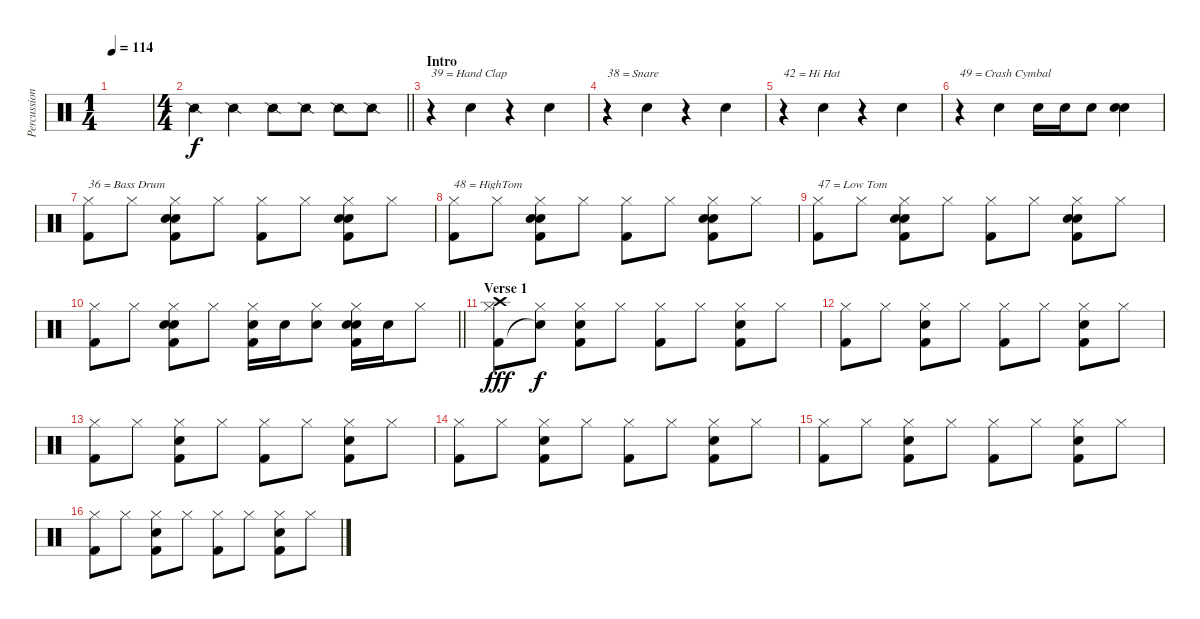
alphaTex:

\track ("Percussion" "Percussion") {instrument percussion}
\staff {score}
\articulation defaults
\ts (1 4)
\tempo 114
\clef neutral
\ks c
|
\ts (4 4)
\barLineRight lightlight "Snare (side stick) 2".4 "Snare (side stick) 2".4 "Snare (side stick) 2".8 "Snare (side stick) 2".8 "Snare (side stick) 2".8 "Snare (side stick) 2".8
|
\section ("" "Intro")
r.4{txt "39 = Hand Clap"} "Hand Clap (hit)".4 r.4 "Hand Clap (hit)".4 |
r.4{txt "38 = Snare"} "Hand Clap (hit)".4 r.4 "Hand Clap (hit)".4 |
r.4{txt "42 = Hi Hat"} "Hand Clap (hit)".4 r.4 "Hand Clap (hit)".4 |
r.4{txt "49 = Crash Cymbal"} "Hand Clap (hit)".4 "Snare (hit) 2".16 "Snare (hit) 2".16 "Snare (hit) 2".8 ("Hand Clap (hit)" "Snare (hit) 2").4 |
("Hi-Hat (closed)" "Kick (hit) 2").8{txt "36 = Bass Drum"} "Hi-Hat (closed)".8 ("Hand Clap (hit)" "Hi-Hat (closed)" "Snare (hit) 2" "Kick (hit) 2").8 "Hi-Hat (closed)".8 ("Hi-Hat (closed)" "Kick (hit) 2").8 "Hi-Hat (closed)".8 ("Hand Clap (hit)" "Hi-Hat (closed)" "Snare (hit) 2" "Kick (hit) 2").8 "Hi-Hat (closed)".8 |
("Hi-Hat (closed)" "Kick (hit) 2").8{txt "48 = HighTom"} "Hi-Hat (closed)".8 ("Hand Clap (hit)" "Hi-Hat (closed)" "Snare (hit) 2" "Kick (hit) 2").8 "Hi-Hat (closed)".8 ("Hi-Hat (closed)" "Kick (hit) 2").8 "Hi-Hat (closed)".8 ("Hand Clap (hit)" "Hi-Hat (closed)" "Snare (hit) 2" "Kick (hit) 2").8 "Hi-Hat (closed)".8 |
("Hi-Hat (closed)" "Kick (hit) 2").8{txt "47 = Low Tom"} "Hi-Hat (closed)".8 ("Hand Clap (hit)" "Hi-Hat (closed)" "Snare (hit) 2" "Kick (hit) 2").8 "Hi-Hat (closed)".8 ("Hi-Hat (closed)" "Kick (hit) 2").8 "Hi-Hat (closed)".8 ("Hand Clap (hit)" "Hi-Hat (closed)" "Snare (hit) 2" "Kick (hit) 2").8 "Hi-Hat (closed)".8 |
\barLineRight lightlight
("Hi-Hat (closed)" "Kick (hit) 2").8 "Hi-Hat (closed)".8 ("Hand Clap (hit)" "Hi-Hat (closed)" "Snare (hit) 2" "Kick (hit) 2").8 "Hi-Hat (closed)".8 ("Hi-Hat (closed)" "Snare (hit) 2" "Kick (hit) 2").16 "Snare (hit) 2".16 ("Hi-Hat (closed)" "Snare (hit) 2").8 ("Hand Clap (hit)" "Hi-Hat (closed)" "Snare (hit) 2" "Kick (hit) 2").16 "Snare (hit) 2".16 "Hi-Hat (closed)".8 |
\section ("" "Verse 1")
("Hi-Hat (closed)" "Kick (hit) 2" "Crash high (hit)").8{dy fff} ("Hi-Hat (closed)" "Snare (hit)"{t}).8{dy f} ("Hi-Hat (closed)" "Snare (hit) 2" "Kick (hit) 2").8 "Hi-Hat (closed)".8 ("Hi-Hat (closed)" "Kick (hit) 2").8 "Hi-Hat (closed)".8 ("Hi-Hat (closed)" "Snare (hit) 2" "Kick (hit) 2").8 "Hi-Hat (closed)".8 |
("Hi-Hat (closed)" "Kick (hit) 2").8 "Hi-Hat (closed)".8 ("Hi-Hat (closed)" "Snare (hit) 2" "Kick (hit) 2").8 "Hi-Hat (closed)".8 ("Hi-Hat (closed)" "Kick (hit) 2").8 "Hi-Hat (closed)".8 ("Hi-Hat (closed)" "Snare (hit) 2" "Kick (hit) 2").8 "Hi-Hat (closed)".8 |
("Hi-Hat (closed)" "Kick (hit) 2").8 "Hi-Hat (closed)".8 ("Hi-Hat (closed)" "Snare (hit) 2" "Kick (hit) 2").8 "Hi-Hat (closed)".8 ("Hi-Hat (closed)" "Kick (hit) 2").8 "Hi-Hat (closed)".8 ("Hi-Hat (closed)" "Snare (hit) 2" "Kick (hit) 2").8 "Hi-Hat (closed)".8 |
("Hi-Hat (closed)" "Kick (hit) 2").8 "Hi-Hat (closed)".8 ("Hi-Hat (closed)" "Snare (hit) 2" "Kick (hit) 2").8 "Hi-Hat (closed)".8 ("Hi-Hat (closed)" "Kick (hit) 2").8 "Hi-Hat (closed)".8 ("Hi-Hat (closed)" "Snare (hit) 2" "Kick (hit) 2").8 "Hi-Hat (closed)".8 |
("Hi-Hat (closed)" "Kick (hit) 2").8 "Hi-Hat (closed)".8 ("Hi-Hat (closed)" "Snare (hit) 2" "Kick (hit) 2").8 "Hi-Hat (closed)".8 ("Hi-Hat (closed)" "Kick (hit) 2").8 "Hi-Hat (closed)".8 ("Hi-Hat (closed)" "Snare (hit) 2" "Kick (hit) 2").8 "Hi-Hat (closed)".8 |
("Hi-Hat (closed)" "Kick (hit) 2").8 "Hi-Hat (closed)".8 ("Hi-Hat (closed)" "Snare (hit) 2" "Kick (hit) 2").8 "Hi-Hat (closed)".8 ("Hi-Hat (closed)" "Kick (hit) 2").8 "Hi-Hat (closed)".8 ("Hi-Hat (closed)" "Snare (hit) 2" "Kick (hit) 2").8 "Hi-Hat (closed)".8
